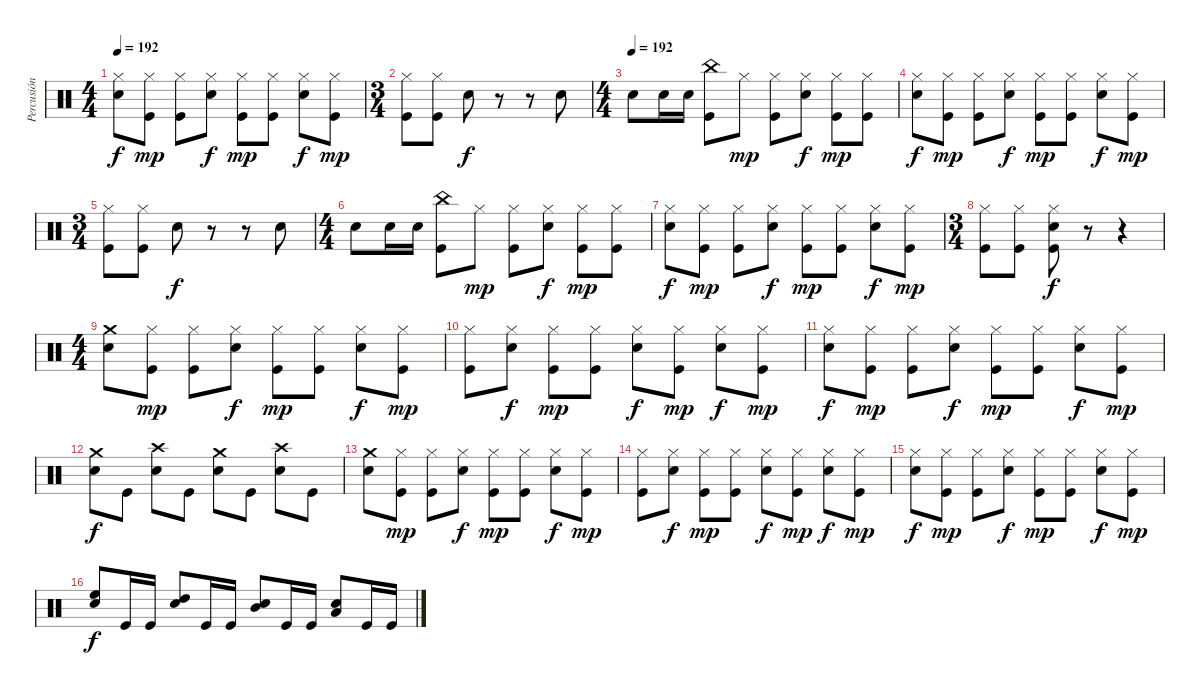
\track ("Percusión" "Percusión") {instrument percussion}
\staff {score}
\articulation defaults
\ts (4 4)
\tempo 192
\clef neutral
\ks c
("Hi-Hat (closed)" "Electric Snare (hit)").8{dy f} ("Hi-Hat (closed)" "Kick (hit)").8{dy mp} ("Hi-Hat (closed)" "Kick (hit)").8 ("Hi-Hat (closed)" "Electric Snare (hit)").8{dy f} ("Hi-Hat (closed)" "Kick (hit)").8{dy mp} ("Hi-Hat (closed)" "Kick (hit)").8 ("Hi-Hat (closed)" "Electric Snare (hit)").8{dy f} ("Hi-Hat (closed)" "Kick (hit)").8{dy mp} |
\ts (3 4)
("Hi-Hat (closed)" "Kick (hit)").8 ("Hi-Hat (closed)" "Kick (hit)").8 "Electric Snare (hit)".8{dy f} r.8 r.8 "Electric Snare (hit)".8 |
\ts (4 4)
\tempo (192)
"Electric Snare (hit)".8 "Electric Snare (hit)".16 "Electric Snare (hit)".16 ("China (hit)" "Kick (hit)").8 "Hi-Hat (closed)".8{dy mp} ("Hi-Hat (closed)" "Kick (hit)").8 ("Hi-Hat (closed)" "Electric Snare (hit)").8{dy f} ("Hi-Hat (closed)" "Kick (hit)").8{dy mp} ("Hi-Hat (closed)" "Kick (hit)").8 |
("Hi-Hat (closed)" "Electric Snare (hit)").8{dy f} ("Hi-Hat (closed)" "Kick (hit)").8{dy mp} ("Hi-Hat (closed)" "Kick (hit)").8 ("Hi-Hat (closed)" "Electric Snare (hit)").8{dy f} ("Hi-Hat (closed)" "Kick (hit)").8{dy mp} ("Hi-Hat (closed)" "Kick (hit)").8 ("Hi-Hat (closed)" "Electric Snare (hit)").8{dy f} ("Hi-Hat (closed)" "Kick (hit)").8{dy mp} |
\ts (3 4)
("Hi-Hat (closed)" "Kick (hit)").8 ("Hi-Hat (closed)" "Kick (hit)").8 "Electric Snare (hit)".8{dy f} r.8 r.8 "Electric Snare (hit)".8 |
\ts (4 4)
"Electric Snare (hit)".8 "Electric Snare (hit)".16 "Electric Snare (hit)".16 ("China (hit)" "Kick (hit)").8 "Hi-Hat (closed)".8{dy mp} ("Hi-Hat (closed)" "Kick (hit)").8 ("Hi-Hat (closed)" "Electric Snare (hit)").8{dy f} ("Hi-Hat (closed)" "Kick (hit)").8{dy mp} ("Hi-Hat (closed)" "Kick (hit)").8 |
("Hi-Hat (closed)" "Electric Snare (hit)").8{dy f} ("Hi-Hat (closed)" "Kick (hit)").8{dy mp} ("Hi-Hat (closed)" "Kick (hit)").8 ("Hi-Hat (closed)" "Electric Snare (hit)").8{dy f} ("Hi-Hat (closed)" "Kick (hit)").8{dy mp} ("Hi-Hat (closed)" "Kick (hit)").8 ("Hi-Hat (closed)" "Electric Snare (hit)").8{dy f} ("Hi-Hat (closed)" "Kick (hit)").8{dy mp} |
\ts (3 4)
("Hi-Hat (closed)" "Kick (hit)").8 ("Hi-Hat (closed)" "Kick (hit)").8 ("Hi-Hat (closed)" "Electric Snare (hit)" "Kick (hit)").8{dy f} r.8 r.4 |
\ts (4 4)
("Crash medium (hit)" "Electric Snare (hit)").8 ("Hi-Hat (closed)" "Kick (hit)").8{dy mp} ("Hi-Hat (closed)" "Kick (hit)").8 ("Hi-Hat (closed)" "Electric Snare (hit)").8{dy f} ("Hi-Hat (closed)" "Kick (hit)").8{dy mp} ("Hi-Hat (closed)" "Kick (hit)").8 ("Hi-Hat (closed)" "Electric Snare (hit)").8{dy f} ("Hi-Hat (closed)" "Kick (hit)").8{dy mp} |
("Hi-Hat (closed)" "Kick (hit)").8 ("Hi-Hat (closed)" "Electric Snare (hit)").8{dy f} ("Hi-Hat (closed)" "Kick (hit)").8{dy mp} ("Hi-Hat (closed)" "Kick (hit)").8 ("Hi-Hat (closed)" "Electric Snare (hit)").8{dy f} ("Hi-Hat (closed)" "Kick (hit)").8{dy mp} ("Hi-Hat (closed)" "Electric Snare (hit)").8{dy f} ("Hi-Hat (closed)" "Kick (hit)").8{dy mp} |
("Hi-Hat (closed)" "Electric Snare (hit)").8{dy f} ("Hi-Hat (closed)" "Kick (hit)").8{dy mp} ("Hi-Hat (closed)" "Kick (hit)").8 ("Hi-Hat (closed)" "Electric Snare (hit)").8{dy f} ("Hi-Hat (closed)" "Kick (hit)").8{dy mp} ("Hi-Hat (closed)" "Kick (hit)").8 ("Hi-Hat (closed)" "Electric Snare (hit)").8{dy f} ("Hi-Hat (closed)" "Kick (hit)").8{dy mp} |
("Crash medium (hit)" "Electric Snare (hit)").8{dy f} "Kick (hit)".8 ("Crash high (hit)" "Electric Snare (hit)").8 "Kick (hit)".8 ("Crash medium (hit)" "Electric Snare (hit)").8 "Kick (hit)".8 ("Crash high (hit)" "Electric Snare (hit)").8 "Kick (hit)".8 |
("Crash medium (hit)" "Electric Snare (hit)").8 ("Hi-Hat (closed)" "Kick (hit)").8{dy mp} ("Hi-Hat (closed)" "Kick (hit)").8 ("Hi-Hat (closed)" "Electric Snare (hit)").8{dy f} ("Hi-Hat (closed)" "Kick (hit)").8{dy mp} ("Hi-Hat (closed)" "Kick (hit)").8 ("Hi-Hat (closed)" "Electric Snare (hit)").8{dy f} ("Hi-Hat (closed)" "Kick (hit)").8{dy mp} |
("Hi-Hat (closed)" "Kick (hit)").8 ("Hi-Hat (closed)" "Electric Snare (hit)").8{dy f} ("Hi-Hat (closed)" "Kick (hit)").8{dy mp} ("Hi-Hat (closed)" "Kick (hit)").8 ("Hi-Hat (closed)" "Electric Snare (hit)").8{dy f} ("Hi-Hat (closed)" "Kick (hit)").8{dy mp} ("Hi-Hat (closed)" "Electric Snare (hit)").8{dy f} ("Hi-Hat (closed)" "Kick (hit)").8{dy mp} |
("Hi-Hat (closed)" "Electric Snare (hit)").8{dy f} ("Hi-Hat (closed)" "Kick (hit)").8{dy mp} ("Hi-Hat (closed)" "Kick (hit)").8 ("Hi-Hat (closed)" "Electric Snare (hit)").8{dy f} ("Hi-Hat (closed)" "Kick (hit)").8{dy mp} ("Hi-Hat (closed)" "Kick (hit)").8 ("Hi-Hat (closed)" "Electric Snare (hit)").8{dy f} ("Hi-Hat (closed)" "Kick (hit)").8{dy mp} |
("High Floor Tom (hit)" "Electric Snare (hit)").8{dy f} "Kick (hit)".16 "Kick (hit)".16 ("High Tom (hit)" "Electric Snare (hit)").8 "Kick (hit)".16 "Kick (hit)".16 ("Electric Snare (hit)" "Mid Tom (hit)").8 "Kick (hit)".16 "Kick (hit)".16 ("Electric Snare (hit)" "Low Tom (hit)").8 "Kick (hit)".16 "Kick (hit)".16
